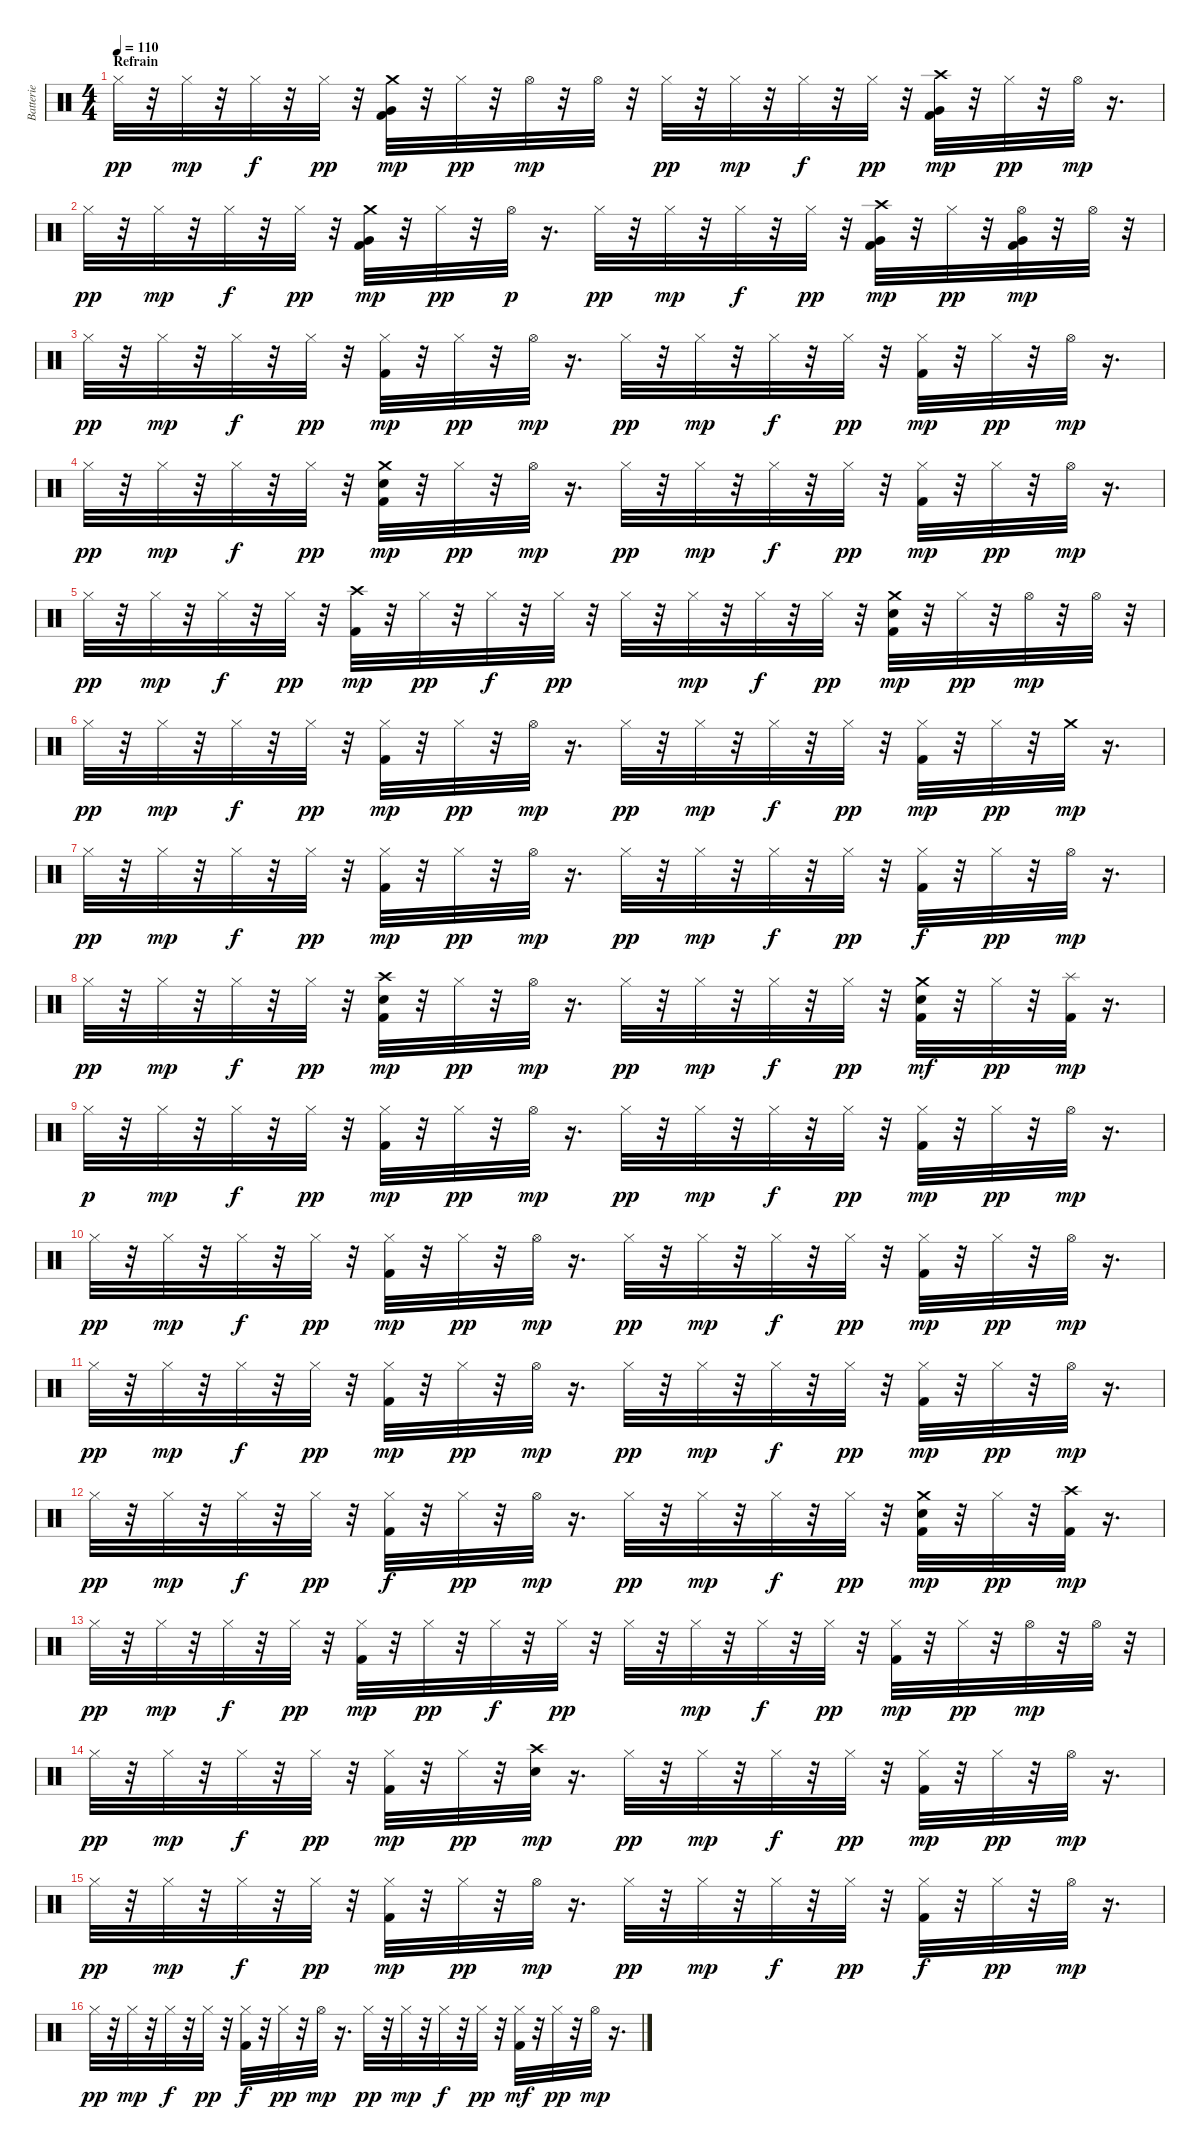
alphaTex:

\track ("Batterie" "Batterie") {instrument percussion}
\staff {score}
\articulation defaults
\ts (4 4)
\section ("" "Refrain")
\tempo 110
\clef neutral
\ks c "Hi-Hat (closed)".32{dy pp}
r.32 "Hi-Hat (closed)".32{dy mp} r.32 "Hi-Hat (closed)".32{dy f} r.32 "Hi-Hat (closed)".32{dy pp} r.32 ("Kick (hit) 2" "Very Low Tom (hit)" "Crash medium (hit)").32{dy mp} r.32 "Hi-Hat (closed)".32{dy pp} r.32 "Hi-Hat (open)".32{dy mp} r.32 "Hi-Hat (open)".32 r.32 "Hi-Hat (closed)".32{dy pp} r.32 "Hi-Hat (closed)".32{dy mp} r.32 "Hi-Hat (closed)".32{dy f} r.32 "Hi-Hat (closed)".32{dy pp} r.32 ("Kick (hit) 2" "Very Low Tom (hit)" "Crash high (hit)").32{dy mp} r.32 "Hi-Hat (closed)".32{dy pp} r.32 "Hi-Hat (open)".32{dy mp} r.16{d} |
"Hi-Hat (closed)".32{dy pp} r.32 "Hi-Hat (closed)".32{dy mp} r.32 "Hi-Hat (closed)".32{dy f} r.32 "Hi-Hat (closed)".32{dy pp} r.32 ("Kick (hit) 2" "Very Low Tom (hit)" "Crash medium (hit)").32{dy mp} r.32 "Hi-Hat (closed)".32{dy pp} r.32 "Hi-Hat (open)".32{dy p} r.16{d} "Hi-Hat (closed)".32{dy pp} r.32 "Hi-Hat (closed)".32{dy mp} r.32 "Hi-Hat (closed)".32{dy f} r.32 "Hi-Hat (closed)".32{dy pp} r.32 ("Kick (hit) 2" "Very Low Tom (hit)" "Crash high (hit)").32{dy mp} r.32 "Hi-Hat (closed)".32{dy pp} r.32 ("Kick (hit) 2" "Very Low Tom (hit)" "Hi-Hat (open)").32{dy mp} r.32 "Hi-Hat (open)".32 r.32 |
"Hi-Hat (closed)".32{dy pp} r.32 "Hi-Hat (closed)".32{dy mp} r.32 "Hi-Hat (closed)".32{dy f} r.32 "Hi-Hat (closed)".32{dy pp} r.32 ("Kick (hit) 2" "Hi-Hat (closed)").32{dy mp} r.32 "Hi-Hat (closed)".32{dy pp} r.32 "Hi-Hat (open)".32{dy mp} r.16{d} "Hi-Hat (closed)".32{dy pp} r.32 "Hi-Hat (closed)".32{dy mp} r.32 "Hi-Hat (closed)".32{dy f} r.32 "Hi-Hat (closed)".32{dy pp} r.32 ("Kick (hit) 2" "Hi-Hat (closed)").32{dy mp} r.32 "Hi-Hat (closed)".32{dy pp} r.32 "Hi-Hat (open)".32{dy mp} r.16{d} |
"Hi-Hat (closed)".32{dy pp} r.32 "Hi-Hat (closed)".32{dy mp} r.32 "Hi-Hat (closed)".32{dy f} r.32 "Hi-Hat (closed)".32{dy pp} r.32 ("Kick (hit) 2" "Electric Snare (hit)" "Crash medium (hit)").32{dy mp} r.32 "Hi-Hat (closed)".32{dy pp} r.32 "Hi-Hat (open)".32{dy mp} r.16{d} "Hi-Hat (closed)".32{dy pp} r.32 "Hi-Hat (closed)".32{dy mp} r.32 "Hi-Hat (closed)".32{dy f} r.32 "Hi-Hat (closed)".32{dy pp} r.32 ("Kick (hit) 2" "Hi-Hat (closed)").32{dy mp} r.32 "Hi-Hat (closed)".32{dy pp} r.32 "Hi-Hat (open)".32{dy mp} r.16{d} |
"Hi-Hat (closed)".32{dy pp} r.32 "Hi-Hat (closed)".32{dy mp} r.32 "Hi-Hat (closed)".32{dy f} r.32 "Hi-Hat (closed)".32{dy pp} r.32 ("Kick (hit) 2" "Crash high (hit)").32{dy mp} r.32 "Hi-Hat (closed)".32{dy pp} r.32 "Hi-Hat (closed)".32{dy f} r.32 "Hi-Hat (closed)".32{dy pp} r.32 "Hi-Hat (closed)".32 r.32 "Hi-Hat (closed)".32{dy mp} r.32 "Hi-Hat (closed)".32{dy f} r.32 "Hi-Hat (closed)".32{dy pp} r.32 ("Kick (hit) 2" "Electric Snare (hit)" "Crash medium (hit)").32{dy mp} r.32 "Hi-Hat (closed)".32{dy pp} r.32 "Hi-Hat (open)".32{dy mp} r.32 "Hi-Hat (open)".32 r.32 |
"Hi-Hat (closed)".32{dy pp} r.32 "Hi-Hat (closed)".32{dy mp} r.32 "Hi-Hat (closed)".32{dy f} r.32 "Hi-Hat (closed)".32{dy pp} r.32 ("Kick (hit) 2" "Hi-Hat (closed)").32{dy mp} r.32 "Hi-Hat (closed)".32{dy pp} r.32 "Hi-Hat (open)".32{dy mp} r.16{d} "Hi-Hat (closed)".32{dy pp} r.32 "Hi-Hat (closed)".32{dy mp} r.32 "Hi-Hat (closed)".32{dy f} r.32 "Hi-Hat (closed)".32{dy pp} r.32 ("Kick (hit) 2" "Hi-Hat (closed)").32{dy mp} r.32 "Hi-Hat (closed)".32{dy pp} r.32 "Crash medium (hit)".32{dy mp} r.16{d} |
"Hi-Hat (closed)".32{dy pp} r.32 "Hi-Hat (closed)".32{dy mp} r.32 "Hi-Hat (closed)".32{dy f} r.32 "Hi-Hat (closed)".32{dy pp} r.32 ("Kick (hit) 2" "Hi-Hat (closed)").32{dy mp} r.32 "Hi-Hat (closed)".32{dy pp} r.32 "Hi-Hat (open)".32{dy mp} r.16{d} "Hi-Hat (closed)".32{dy pp} r.32 "Hi-Hat (closed)".32{dy mp} r.32 "Hi-Hat (closed)".32{dy f} r.32 "Hi-Hat (closed)".32{dy pp} r.32 ("Kick (hit) 2" "Hi-Hat (closed)").32{dy f} r.32 "Hi-Hat (closed)".32{dy pp} r.32 "Hi-Hat (open)".32{dy mp} r.16{d} |
"Hi-Hat (closed)".32{dy pp} r.32 "Hi-Hat (closed)".32{dy mp} r.32 "Hi-Hat (closed)".32{dy f} r.32 "Hi-Hat (closed)".32{dy pp} r.32 ("Kick (hit) 2" "Electric Snare (hit)" "Crash high (hit)").32{dy mp} r.32 "Hi-Hat (closed)".32{dy pp} r.32 "Hi-Hat (open)".32{dy mp} r.16{d} "Hi-Hat (closed)".32{dy pp} r.32 "Hi-Hat (closed)".32{dy mp} r.32 "Hi-Hat (closed)".32{dy f} r.32 "Hi-Hat (closed)".32{dy pp} r.32 ("Kick (hit) 2" "Electric Snare (hit)" "Crash medium (hit)").32{dy mf} r.32 "Hi-Hat (closed)".32{dy pp} r.32 ("Kick (hit) 2" "Splash (hit)").32{dy mp} r.16{d} |
"Hi-Hat (closed)".32{dy p} r.32 "Hi-Hat (closed)".32{dy mp} r.32 "Hi-Hat (closed)".32{dy f} r.32 "Hi-Hat (closed)".32{dy pp} r.32 ("Kick (hit) 2" "Hi-Hat (closed)").32{dy mp} r.32 "Hi-Hat (closed)".32{dy pp} r.32 "Hi-Hat (open)".32{dy mp} r.16{d} "Hi-Hat (closed)".32{dy pp} r.32 "Hi-Hat (closed)".32{dy mp} r.32 "Hi-Hat (closed)".32{dy f} r.32 "Hi-Hat (closed)".32{dy pp} r.32 ("Kick (hit) 2" "Hi-Hat (closed)").32{dy mp} r.32 "Hi-Hat (closed)".32{dy pp} r.32 "Hi-Hat (open)".32{dy mp} r.16{d} |
"Hi-Hat (closed)".32{dy pp} r.32 "Hi-Hat (closed)".32{dy mp} r.32 "Hi-Hat (closed)".32{dy f} r.32 "Hi-Hat (closed)".32{dy pp} r.32 ("Kick (hit) 2" "Hi-Hat (closed)").32{dy mp} r.32 "Hi-Hat (closed)".32{dy pp} r.32 "Hi-Hat (open)".32{dy mp} r.16{d} "Hi-Hat (closed)".32{dy pp} r.32 "Hi-Hat (closed)".32{dy mp} r.32 "Hi-Hat (closed)".32{dy f} r.32 "Hi-Hat (closed)".32{dy pp} r.32 ("Kick (hit) 2" "Hi-Hat (closed)").32{dy mp} r.32 "Hi-Hat (closed)".32{dy pp} r.32 "Hi-Hat (open)".32{dy mp} r.16{d} |
"Hi-Hat (closed)".32{dy pp} r.32 "Hi-Hat (closed)".32{dy mp} r.32 "Hi-Hat (closed)".32{dy f} r.32 "Hi-Hat (closed)".32{dy pp} r.32 ("Kick (hit) 2" "Hi-Hat (closed)").32{dy mp} r.32 "Hi-Hat (closed)".32{dy pp} r.32 "Hi-Hat (open)".32{dy mp} r.16{d} "Hi-Hat (closed)".32{dy pp} r.32 "Hi-Hat (closed)".32{dy mp} r.32 "Hi-Hat (closed)".32{dy f} r.32 "Hi-Hat (closed)".32{dy pp} r.32 ("Kick (hit) 2" "Hi-Hat (closed)").32{dy mp} r.32 "Hi-Hat (closed)".32{dy pp} r.32 "Hi-Hat (open)".32{dy mp} r.16{d} |
"Hi-Hat (closed)".32{dy pp} r.32 "Hi-Hat (closed)".32{dy mp} r.32 "Hi-Hat (closed)".32{dy f} r.32 "Hi-Hat (closed)".32{dy pp} r.32 ("Kick (hit) 2" "Hi-Hat (closed)").32{dy f} r.32 "Hi-Hat (closed)".32{dy pp} r.32 "Hi-Hat (open)".32{dy mp} r.16{d} "Hi-Hat (closed)".32{dy pp} r.32 "Hi-Hat (closed)".32{dy mp} r.32 "Hi-Hat (closed)".32{dy f} r.32 "Hi-Hat (closed)".32{dy pp} r.32 ("Kick (hit) 2" "Electric Snare (hit)" "Crash medium (hit)").32{dy mp} r.32 "Hi-Hat (closed)".32{dy pp} r.32 ("Kick (hit) 2" "Crash high (hit)").32{dy mp} r.16{d} |
"Hi-Hat (closed)".32{dy pp} r.32 "Hi-Hat (closed)".32{dy mp} r.32 "Hi-Hat (closed)".32{dy f} r.32 "Hi-Hat (closed)".32{dy pp} r.32 ("Kick (hit) 2" "Hi-Hat (closed)").32{dy mp} r.32 "Hi-Hat (closed)".32{dy pp} r.32 "Hi-Hat (closed)".32{dy f} r.32 "Hi-Hat (closed)".32{dy pp} r.32 "Hi-Hat (closed)".32 r.32 "Hi-Hat (closed)".32{dy mp} r.32 "Hi-Hat (closed)".32{dy f} r.32 "Hi-Hat (closed)".32{dy pp} r.32 ("Kick (hit) 2" "Hi-Hat (closed)").32{dy mp} r.32 "Hi-Hat (closed)".32{dy pp} r.32 "Hi-Hat (open)".32{dy mp} r.32 "Hi-Hat (open)".32 r.32 |
"Hi-Hat (closed)".32{dy pp} r.32 "Hi-Hat (closed)".32{dy mp} r.32 "Hi-Hat (closed)".32{dy f} r.32 "Hi-Hat (closed)".32{dy pp} r.32 ("Kick (hit) 2" "Hi-Hat (closed)").32{dy mp} r.32 "Hi-Hat (closed)".32{dy pp} r.32 ("Electric Snare (hit)" "Crash high (hit)").32{dy mp} r.16{d} "Hi-Hat (closed)".32{dy pp} r.32 "Hi-Hat (closed)".32{dy mp} r.32 "Hi-Hat (closed)".32{dy f} r.32 "Hi-Hat (closed)".32{dy pp} r.32 ("Kick (hit) 2" "Hi-Hat (closed)").32{dy mp} r.32 "Hi-Hat (closed)".32{dy pp} r.32 "Hi-Hat (open)".32{dy mp} r.16{d} |
"Hi-Hat (closed)".32{dy pp} r.32 "Hi-Hat (closed)".32{dy mp} r.32 "Hi-Hat (closed)".32{dy f} r.32 "Hi-Hat (closed)".32{dy pp} r.32 ("Kick (hit) 2" "Hi-Hat (closed)").32{dy mp} r.32 "Hi-Hat (closed)".32{dy pp} r.32 "Hi-Hat (open)".32{dy mp} r.16{d} "Hi-Hat (closed)".32{dy pp} r.32 "Hi-Hat (closed)".32{dy mp} r.32 "Hi-Hat (closed)".32{dy f} r.32 "Hi-Hat (closed)".32{dy pp} r.32 ("Kick (hit) 2" "Hi-Hat (closed)").32{dy f} r.32 "Hi-Hat (closed)".32{dy pp} r.32 "Hi-Hat (open)".32{dy mp} r.16{d} |
"Hi-Hat (closed)".32{dy pp} r.32 "Hi-Hat (closed)".32{dy mp} r.32 "Hi-Hat (closed)".32{dy f} r.32 "Hi-Hat (closed)".32{dy pp} r.32 ("Kick (hit) 2" "Hi-Hat (closed)").32{dy f} r.32 "Hi-Hat (closed)".32{dy pp} r.32 "Hi-Hat (open)".32{dy mp} r.16{d} "Hi-Hat (closed)".32{dy pp} r.32 "Hi-Hat (closed)".32{dy mp} r.32 "Hi-Hat (closed)".32{dy f} r.32 "Hi-Hat (closed)".32{dy pp} r.32 ("Kick (hit) 2" "Hi-Hat (closed)").32{dy mf} r.32 "Hi-Hat (closed)".32{dy pp} r.32 "Hi-Hat (open)".32{dy mp} r.16{d}
